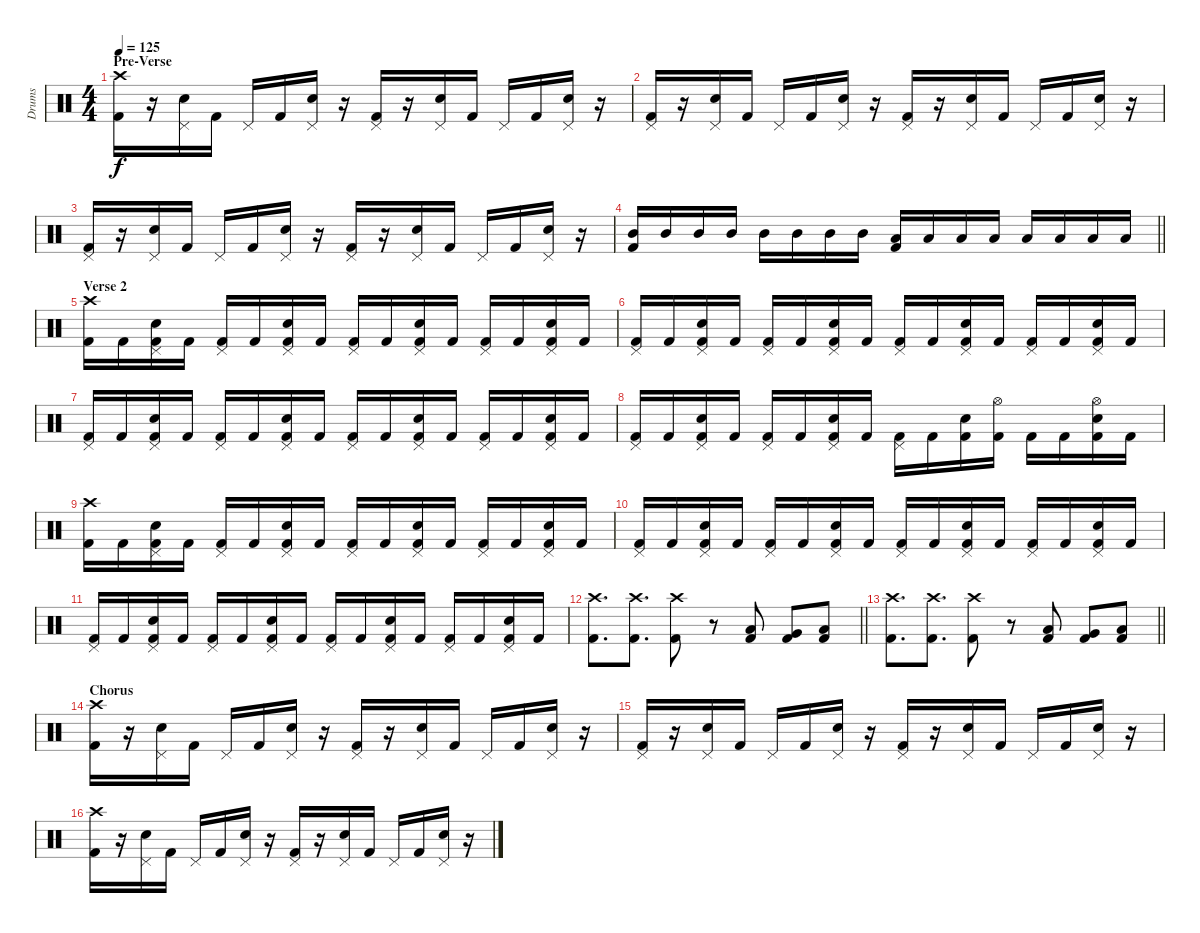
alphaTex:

\track ("Drums" "Drums") {instrument percussion}
\staff {score}
\articulation defaults
\ts (4 4)
\section ("" "Pre-Verse")
\tempo 125
\clef neutral
\ks c
("Crash high (hit)" "Kick (hit) 2").16{dy f} r.16 ("Pedal Hi-Hat (hit)" "Snare (hit) 2").16 "Kick (hit) 2".16 "Pedal Hi-Hat (hit)".16 "Kick (hit) 2".16 ("Pedal Hi-Hat (hit)" "Snare (hit) 2").16 r.16 ("Pedal Hi-Hat (hit)" "Kick (hit) 2").16 r.16 ("Pedal Hi-Hat (hit)" "Snare (hit) 2").16 "Kick (hit) 2".16 "Pedal Hi-Hat (hit)".16 "Kick (hit) 2".16 ("Pedal Hi-Hat (hit)" "Snare (hit) 2").16 r.16 |
("Pedal Hi-Hat (hit)" "Kick (hit) 2").16 r.16 ("Pedal Hi-Hat (hit)" "Snare (hit) 2").16 "Kick (hit) 2".16 "Pedal Hi-Hat (hit)".16 "Kick (hit) 2".16 ("Pedal Hi-Hat (hit)" "Snare (hit) 2").16 r.16 ("Pedal Hi-Hat (hit)" "Kick (hit) 2").16 r.16 ("Pedal Hi-Hat (hit)" "Snare (hit) 2").16 "Kick (hit) 2".16 "Pedal Hi-Hat (hit)".16 "Kick (hit) 2".16 ("Pedal Hi-Hat (hit)" "Snare (hit) 2").16 r.16 |
("Pedal Hi-Hat (hit)" "Kick (hit) 2").16 r.16 ("Pedal Hi-Hat (hit)" "Snare (hit) 2").16 "Kick (hit) 2".16 "Pedal Hi-Hat (hit)".16 "Kick (hit) 2".16 ("Pedal Hi-Hat (hit)" "Snare (hit) 2").16 r.16 ("Pedal Hi-Hat (hit)" "Kick (hit) 2").16 r.16 ("Pedal Hi-Hat (hit)" "Snare (hit) 2").16 "Kick (hit) 2".16 "Pedal Hi-Hat (hit)".16 "Kick (hit) 2".16 ("Pedal Hi-Hat (hit)" "Snare (hit) 2").16 r.16 |
\barLineRight lightlight
("Mid Tom (hit)" "Kick (hit) 2").16 "Mid Tom (hit)".16 "Mid Tom (hit)".16 "Mid Tom (hit)".16 "Mid Tom (hit)".16 "Mid Tom (hit)".16 "Mid Tom (hit)".16 "Mid Tom (hit)".16 ("Low Tom (hit)" "Kick (hit) 2").16 "Low Tom (hit)".16 "Low Tom (hit)".16 "Low Tom (hit)".16 "Low Tom (hit)".16 "Low Tom (hit)".16 "Low Tom (hit)".16 "Low Tom (hit)".16 |
\section ("" "Verse 2")
("Crash high (hit)" "Kick (hit) 2").16 "Kick (hit) 2".16 ("Pedal Hi-Hat (hit)" "Snare (hit) 2" "Kick (hit) 2").16 "Kick (hit) 2".16 ("Pedal Hi-Hat (hit)" "Kick (hit) 2").16 "Kick (hit) 2".16 ("Pedal Hi-Hat (hit)" "Snare (hit) 2" "Kick (hit) 2").16 "Kick (hit) 2".16 ("Pedal Hi-Hat (hit)" "Kick (hit) 2").16 "Kick (hit) 2".16 ("Pedal Hi-Hat (hit)" "Snare (hit) 2" "Kick (hit) 2").16 "Kick (hit) 2".16 ("Pedal Hi-Hat (hit)" "Kick (hit) 2").16 "Kick (hit) 2".16 ("Pedal Hi-Hat (hit)" "Snare (hit) 2" "Kick (hit) 2").16 "Kick (hit) 2".16 |
("Pedal Hi-Hat (hit)" "Kick (hit) 2").16 "Kick (hit) 2".16 ("Pedal Hi-Hat (hit)" "Snare (hit) 2" "Kick (hit) 2").16 "Kick (hit) 2".16 ("Pedal Hi-Hat (hit)" "Kick (hit) 2").16 "Kick (hit) 2".16 ("Pedal Hi-Hat (hit)" "Snare (hit) 2" "Kick (hit) 2").16 "Kick (hit) 2".16 ("Pedal Hi-Hat (hit)" "Kick (hit) 2").16 "Kick (hit) 2".16 ("Pedal Hi-Hat (hit)" "Snare (hit) 2" "Kick (hit) 2").16 "Kick (hit) 2".16 ("Pedal Hi-Hat (hit)" "Kick (hit) 2").16 "Kick (hit) 2".16 ("Pedal Hi-Hat (hit)" "Snare (hit) 2" "Kick (hit) 2").16 "Kick (hit) 2".16 |
("Pedal Hi-Hat (hit)" "Kick (hit) 2").16 "Kick (hit) 2".16 ("Pedal Hi-Hat (hit)" "Snare (hit) 2" "Kick (hit) 2").16 "Kick (hit) 2".16 ("Pedal Hi-Hat (hit)" "Kick (hit) 2").16 "Kick (hit) 2".16 ("Pedal Hi-Hat (hit)" "Snare (hit) 2" "Kick (hit) 2").16 "Kick (hit) 2".16 ("Pedal Hi-Hat (hit)" "Kick (hit) 2").16 "Kick (hit) 2".16 ("Pedal Hi-Hat (hit)" "Snare (hit) 2" "Kick (hit) 2").16 "Kick (hit) 2".16 ("Pedal Hi-Hat (hit)" "Kick (hit) 2").16 "Kick (hit) 2".16 ("Pedal Hi-Hat (hit)" "Snare (hit) 2" "Kick (hit) 2").16 "Kick (hit) 2".16 |
("Pedal Hi-Hat (hit)" "Kick (hit) 2").16 "Kick (hit) 2".16 ("Pedal Hi-Hat (hit)" "Snare (hit) 2" "Kick (hit) 2").16 "Kick (hit) 2".16 ("Pedal Hi-Hat (hit)" "Kick (hit) 2").16 "Kick (hit) 2".16 ("Pedal Hi-Hat (hit)" "Snare (hit) 2" "Kick (hit) 2").16 "Kick (hit) 2".16 ("Pedal Hi-Hat (hit)" "Kick (hit) 2").16 "Kick (hit) 2".16 ("Snare (hit) 2" "Kick (hit) 2").16 ("Hi-Hat (open)" "Kick (hit) 2").16 "Kick (hit) 2".16 "Kick (hit) 2".16 ("Hi-Hat (open)" "Snare (hit) 2" "Kick (hit) 2").16 "Kick (hit) 2".16 |
("Crash high (hit)" "Kick (hit) 2").16 "Kick (hit) 2".16 ("Pedal Hi-Hat (hit)" "Snare (hit) 2" "Kick (hit) 2").16 "Kick (hit) 2".16 ("Pedal Hi-Hat (hit)" "Kick (hit) 2").16 "Kick (hit) 2".16 ("Pedal Hi-Hat (hit)" "Snare (hit) 2" "Kick (hit) 2").16 "Kick (hit) 2".16 ("Pedal Hi-Hat (hit)" "Kick (hit) 2").16 "Kick (hit) 2".16 ("Pedal Hi-Hat (hit)" "Snare (hit) 2" "Kick (hit) 2").16 "Kick (hit) 2".16 ("Pedal Hi-Hat (hit)" "Kick (hit) 2").16 "Kick (hit) 2".16 ("Pedal Hi-Hat (hit)" "Snare (hit) 2" "Kick (hit) 2").16 "Kick (hit) 2".16 |
("Pedal Hi-Hat (hit)" "Kick (hit) 2").16 "Kick (hit) 2".16 ("Pedal Hi-Hat (hit)" "Snare (hit) 2" "Kick (hit) 2").16 "Kick (hit) 2".16 ("Pedal Hi-Hat (hit)" "Kick (hit) 2").16 "Kick (hit) 2".16 ("Pedal Hi-Hat (hit)" "Snare (hit) 2" "Kick (hit) 2").16 "Kick (hit) 2".16 ("Pedal Hi-Hat (hit)" "Kick (hit) 2").16 "Kick (hit) 2".16 ("Pedal Hi-Hat (hit)" "Snare (hit) 2" "Kick (hit) 2").16 "Kick (hit) 2".16 ("Pedal Hi-Hat (hit)" "Kick (hit) 2").16 "Kick (hit) 2".16 ("Pedal Hi-Hat (hit)" "Snare (hit) 2" "Kick (hit) 2").16 "Kick (hit) 2".16 |
("Pedal Hi-Hat (hit)" "Kick (hit) 2").16 "Kick (hit) 2".16 ("Pedal Hi-Hat (hit)" "Snare (hit) 2" "Kick (hit) 2").16 "Kick (hit) 2".16 ("Pedal Hi-Hat (hit)" "Kick (hit) 2").16 "Kick (hit) 2".16 ("Pedal Hi-Hat (hit)" "Snare (hit) 2" "Kick (hit) 2").16 "Kick (hit) 2".16 ("Pedal Hi-Hat (hit)" "Kick (hit) 2").16 "Kick (hit) 2".16 ("Pedal Hi-Hat (hit)" "Snare (hit) 2" "Kick (hit) 2").16 "Kick (hit) 2".16 ("Pedal Hi-Hat (hit)" "Kick (hit) 2").16 "Kick (hit) 2".16 ("Pedal Hi-Hat (hit)" "Snare (hit) 2" "Kick (hit) 2").16 "Kick (hit) 2".16 |
\barLineRight lightlight
("Crash high (hit)" "Kick (hit) 2").8{d} ("Crash high (hit)" "Kick (hit) 2").8{d} ("Crash high (hit)" "Kick (hit) 2").8 r.8 ("Low Tom (hit)" "Kick (hit) 2").8 ("Very Low Tom (hit)" "Kick (hit) 2").8 ("Low Tom (hit)" "Kick (hit) 2").8 |
\barLineRight lightlight
("Crash high (hit)" "Kick (hit) 2").8{d} ("Crash high (hit)" "Kick (hit) 2").8{d} ("Crash high (hit)" "Kick (hit) 2").8 r.8 ("Low Tom (hit)" "Kick (hit) 2").8 ("Very Low Tom (hit)" "Kick (hit) 2").8 ("Low Tom (hit)" "Kick (hit) 2").8 |
\section ("" "Chorus")
("Crash high (hit)" "Kick (hit) 2").16 r.16 ("Pedal Hi-Hat (hit)" "Snare (hit) 2").16 "Kick (hit) 2".16 "Pedal Hi-Hat (hit)".16 "Kick (hit) 2".16 ("Pedal Hi-Hat (hit)" "Snare (hit) 2").16 r.16 ("Pedal Hi-Hat (hit)" "Kick (hit) 2").16 r.16 ("Pedal Hi-Hat (hit)" "Snare (hit) 2").16 "Kick (hit) 2".16 "Pedal Hi-Hat (hit)".16 "Kick (hit) 2".16 ("Pedal Hi-Hat (hit)" "Snare (hit) 2").16 r.16 |
("Pedal Hi-Hat (hit)" "Kick (hit) 2").16 r.16 ("Pedal Hi-Hat (hit)" "Snare (hit) 2").16 "Kick (hit) 2".16 "Pedal Hi-Hat (hit)".16 "Kick (hit) 2".16 ("Pedal Hi-Hat (hit)" "Snare (hit) 2").16 r.16 ("Pedal Hi-Hat (hit)" "Kick (hit) 2").16 r.16 ("Pedal Hi-Hat (hit)" "Snare (hit) 2").16 "Kick (hit) 2".16 "Pedal Hi-Hat (hit)".16 "Kick (hit) 2".16 ("Pedal Hi-Hat (hit)" "Snare (hit) 2").16 r.16 |
("Crash high (hit)" "Kick (hit) 2").16 r.16 ("Pedal Hi-Hat (hit)" "Snare (hit) 2").16 "Kick (hit) 2".16 "Pedal Hi-Hat (hit)".16 "Kick (hit) 2".16 ("Pedal Hi-Hat (hit)" "Snare (hit) 2").16 r.16 ("Pedal Hi-Hat (hit)" "Kick (hit) 2").16 r.16 ("Pedal Hi-Hat (hit)" "Snare (hit) 2").16 "Kick (hit) 2".16 "Pedal Hi-Hat (hit)".16 "Kick (hit) 2".16 ("Pedal Hi-Hat (hit)" "Snare (hit) 2").16 r.16
